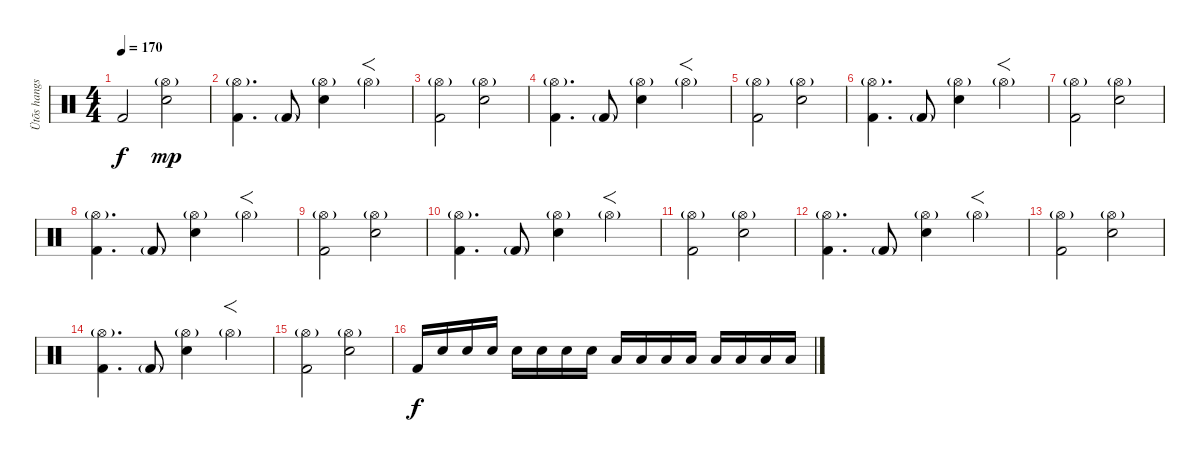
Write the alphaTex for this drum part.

\track ("Ütõs hangszer" "Ütõs hangs") {instrument percussion}
\staff {score}
\articulation defaults
\ts (4 4)
\section ("" "")
\tempo 170
\clef neutral
\ks c "Kick (hit) 2".2{dy f}
("Hi-Hat (open)"{g} "Electric Snare (hit)").2{dy mp} |
("Hi-Hat (open)"{g} "Kick (hit) 2").4{d} "Kick (hit) 2"{g}.8 ("Hi-Hat (open)"{g} "Electric Snare (hit)").4 "Hi-Hat (open)"{g}.4{f} |
("Hi-Hat (open)"{g} "Kick (hit) 2").2 ("Hi-Hat (open)"{g} "Electric Snare (hit)").2 |
("Hi-Hat (open)"{g} "Kick (hit) 2").4{d} "Kick (hit) 2"{g}.8 ("Hi-Hat (open)"{g} "Electric Snare (hit)").4 "Hi-Hat (open)"{g}.4{f} |
("Hi-Hat (open)"{g} "Kick (hit) 2").2 ("Hi-Hat (open)"{g} "Electric Snare (hit)").2 |
("Hi-Hat (open)"{g} "Kick (hit) 2").4{d} "Kick (hit) 2"{g}.8 ("Hi-Hat (open)"{g} "Electric Snare (hit)").4 "Hi-Hat (open)"{g}.4{f} |
("Hi-Hat (open)"{g} "Kick (hit) 2").2 ("Hi-Hat (open)"{g} "Electric Snare (hit)").2 |
("Hi-Hat (open)"{g} "Kick (hit) 2").4{d} "Kick (hit) 2"{g}.8 ("Hi-Hat (open)"{g} "Electric Snare (hit)").4 "Hi-Hat (open)"{g}.4{f} |
("Hi-Hat (open)"{g} "Kick (hit) 2").2 ("Hi-Hat (open)"{g} "Electric Snare (hit)").2 |
("Hi-Hat (open)"{g} "Kick (hit) 2").4{d} "Kick (hit) 2"{g}.8 ("Hi-Hat (open)"{g} "Electric Snare (hit)").4 "Hi-Hat (open)"{g}.4{f} |
("Hi-Hat (open)"{g} "Kick (hit) 2").2 ("Hi-Hat (open)"{g} "Electric Snare (hit)").2 |
("Hi-Hat (open)"{g} "Kick (hit) 2").4{d} "Kick (hit) 2"{g}.8 ("Hi-Hat (open)"{g} "Electric Snare (hit)").4 "Hi-Hat (open)"{g}.4{f} |
("Hi-Hat (open)"{g} "Kick (hit) 2").2 ("Hi-Hat (open)"{g} "Electric Snare (hit)").2 |
("Hi-Hat (open)"{g} "Kick (hit) 2").4{d} "Kick (hit) 2"{g}.8 ("Hi-Hat (open)"{g} "Electric Snare (hit)").4 "Hi-Hat (open)"{g}.4{f} |
("Hi-Hat (open)"{g} "Kick (hit) 2").2 ("Hi-Hat (open)"{g} "Electric Snare (hit)").2 |
"Kick (hit) 2".16{dy f} "Electric Snare (hit)".16 "Electric Snare (hit)".16 "Electric Snare (hit)".16 "Electric Snare (hit)".16 "Electric Snare (hit)".16 "Electric Snare (hit)".16 "Electric Snare (hit)".16 "Low Tom (hit)".16 "Low Tom (hit)".16 "Low Tom (hit)".16 "Low Tom (hit)".16 "Low Tom (hit)".16 "Low Tom (hit)".16 "Low Tom (hit)".16 "Low Tom (hit)".16
